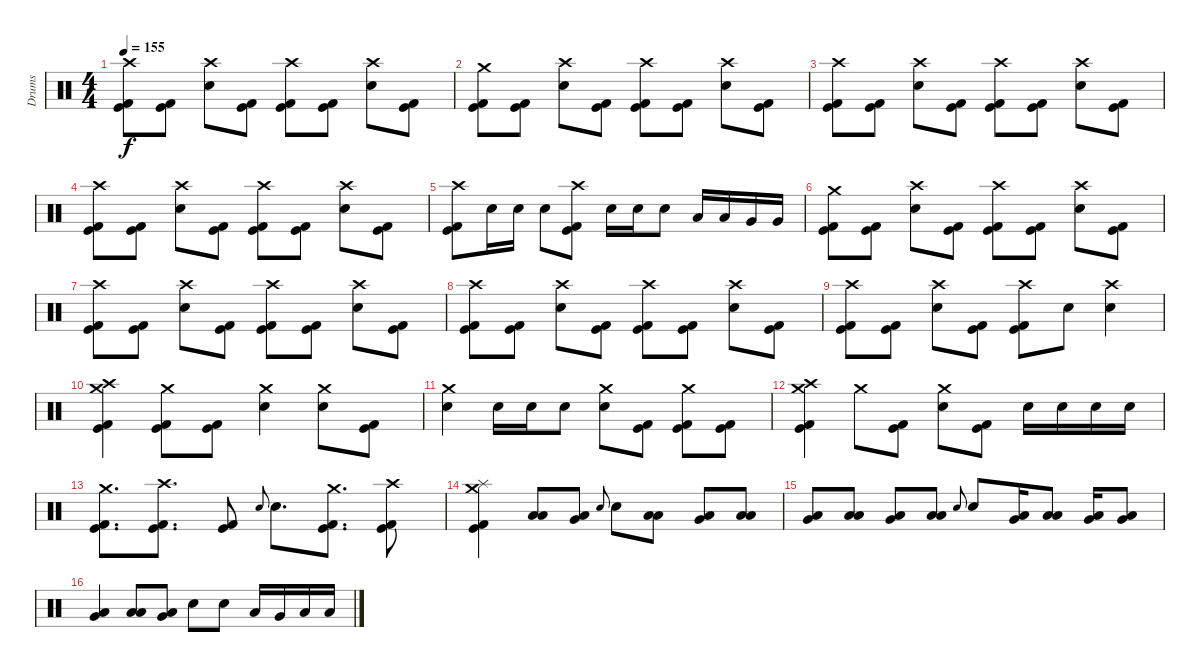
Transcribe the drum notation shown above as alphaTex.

\track ("Drums" "Drums") {instrument percussion}
\staff {score}
\articulation defaults
\ts (4 4)
\tempo 155
\clef neutral
\ks c
("Crash high (hit)" "Kick (hit)" "Kick (hit) 2").8{dy f} ("Kick (hit)" "Kick (hit) 2").8 ("Crash high (hit)" "Electric Snare (hit)").8 ("Kick (hit)" "Kick (hit) 2").8 ("Crash high (hit)" "Kick (hit)" "Kick (hit) 2").8 ("Kick (hit)" "Kick (hit) 2").8 ("Crash high (hit)" "Electric Snare (hit)").8 ("Kick (hit)" "Kick (hit) 2").8 |
("Crash medium (hit)" "Kick (hit)" "Kick (hit) 2").8 ("Kick (hit)" "Kick (hit) 2").8 ("Crash high (hit)" "Electric Snare (hit)").8 ("Kick (hit)" "Kick (hit) 2").8 ("Crash high (hit)" "Kick (hit)" "Kick (hit) 2").8 ("Kick (hit)" "Kick (hit) 2").8 ("Crash high (hit)" "Electric Snare (hit)").8 ("Kick (hit)" "Kick (hit) 2").8 |
("Crash high (hit)" "Kick (hit)" "Kick (hit) 2").8 ("Kick (hit)" "Kick (hit) 2").8 ("Crash high (hit)" "Electric Snare (hit)").8 ("Kick (hit)" "Kick (hit) 2").8 ("Crash high (hit)" "Kick (hit)" "Kick (hit) 2").8 ("Kick (hit)" "Kick (hit) 2").8 ("Crash high (hit)" "Electric Snare (hit)").8 ("Kick (hit)" "Kick (hit) 2").8 |
("Crash high (hit)" "Kick (hit)" "Kick (hit) 2").8 ("Kick (hit)" "Kick (hit) 2").8 ("Crash high (hit)" "Electric Snare (hit)").8 ("Kick (hit)" "Kick (hit) 2").8 ("Crash high (hit)" "Kick (hit)" "Kick (hit) 2").8 ("Kick (hit)" "Kick (hit) 2").8 ("Crash high (hit)" "Electric Snare (hit)").8 ("Kick (hit)" "Kick (hit) 2").8 |
("Crash high (hit)" "Kick (hit)" "Kick (hit) 2").8 "Electric Snare (hit)".16 "Electric Snare (hit)".16 "Electric Snare (hit)".8 ("Crash high (hit)" "Kick (hit)" "Kick (hit) 2").8 "Electric Snare (hit)".16 "Electric Snare (hit)".16 "Electric Snare (hit)".8 "Low Tom (hit)".16 "Low Tom (hit)".16 "Very Low Tom (hit)".16 "Very Low Tom (hit)".16 |
("Crash medium (hit)" "Kick (hit)" "Kick (hit) 2").8 ("Kick (hit)" "Kick (hit) 2").8 ("Crash high (hit)" "Electric Snare (hit)").8 ("Kick (hit)" "Kick (hit) 2").8 ("Crash high (hit)" "Kick (hit)" "Kick (hit) 2").8 ("Kick (hit)" "Kick (hit) 2").8 ("Crash high (hit)" "Electric Snare (hit)").8 ("Kick (hit)" "Kick (hit) 2").8 |
("Crash high (hit)" "Kick (hit)" "Kick (hit) 2").8 ("Kick (hit)" "Kick (hit) 2").8 ("Crash high (hit)" "Electric Snare (hit)").8 ("Kick (hit)" "Kick (hit) 2").8 ("Crash high (hit)" "Kick (hit)" "Kick (hit) 2").8 ("Kick (hit)" "Kick (hit) 2").8 ("Crash high (hit)" "Electric Snare (hit)").8 ("Kick (hit)" "Kick (hit) 2").8 |
("Crash high (hit)" "Kick (hit)" "Kick (hit) 2").8 ("Kick (hit)" "Kick (hit) 2").8 ("Crash high (hit)" "Electric Snare (hit)").8 ("Kick (hit)" "Kick (hit) 2").8 ("Crash high (hit)" "Kick (hit)" "Kick (hit) 2").8 ("Kick (hit)" "Kick (hit) 2").8 ("Crash high (hit)" "Electric Snare (hit)").8 ("Kick (hit)" "Kick (hit) 2").8 |
("Crash high (hit)" "Kick (hit)" "Kick (hit) 2").8 ("Kick (hit)" "Kick (hit) 2").8 ("Crash high (hit)" "Electric Snare (hit)").8 ("Kick (hit)" "Kick (hit) 2").8 ("Crash high (hit)" "Kick (hit)" "Kick (hit) 2").8 "Electric Snare (hit)".8 ("Crash high (hit)" "Electric Snare (hit)").4 |
("Crash medium (hit)" "Crash high (hit)" "Kick (hit)" "Kick (hit) 2").4 ("Crash medium (hit)" "Kick (hit)" "Kick (hit) 2").8 ("Kick (hit)" "Kick (hit) 2").8 ("Crash medium (hit)" "Electric Snare (hit)").4 ("Crash medium (hit)" "Electric Snare (hit)").8 ("Kick (hit)" "Kick (hit) 2").8 |
("Crash medium (hit)" "Electric Snare (hit)").4 "Electric Snare (hit)".16 "Electric Snare (hit)".16 "Electric Snare (hit)".8 ("Crash medium (hit)" "Electric Snare (hit)").8 ("Kick (hit)" "Kick (hit) 2").8 ("Crash medium (hit)" "Kick (hit)" "Kick (hit) 2").8 ("Kick (hit)" "Kick (hit) 2").8 |
("Crash high (hit)" "Crash medium (hit)" "Kick (hit)" "Kick (hit) 2").4 "Crash medium (hit)".8 ("Kick (hit)" "Kick (hit) 2").8 ("Crash medium (hit)" "Electric Snare (hit)").8 ("Kick (hit)" "Kick (hit) 2").8 "Electric Snare (hit)".16 "Electric Snare (hit)".16 "Electric Snare (hit)".16 "Electric Snare (hit)".16 |
("Crash medium (hit)" "Kick (hit)" "Kick (hit) 2").8{d} ("Crash high (hit)" "Kick (hit)" "Kick (hit) 2").8{d} ("Kick (hit)" "Kick (hit) 2").8 "Electric Snare (hit)".8{gr onbeat} "Electric Snare (hit)".8{d} ("Crash medium (hit)" "Kick (hit)" "Kick (hit) 2").8{d} ("Crash high (hit)" "Kick (hit)" "Kick (hit) 2").8 |
("Crash medium (hit)" "Splash (hit)" "Kick (hit)" "Kick (hit) 2").4 ("Low Tom (hit)" "Low Floor Tom (hit)").8 ("Low Tom (hit)" "Very Low Tom (hit)").8 "Electric Snare (hit)".8{gr onbeat} "Electric Snare (hit)".8 ("Low Tom (hit)" "Low Floor Tom (hit)").8 ("Low Tom (hit)" "Very Low Tom (hit)").8 ("Low Tom (hit)" "Low Floor Tom (hit)").8 |
("Low Tom (hit)" "Very Low Tom (hit)").8 ("Low Tom (hit)" "Low Floor Tom (hit)").8 ("Low Tom (hit)" "Very Low Tom (hit)").8 ("Low Tom (hit)" "Low Floor Tom (hit)").8 "Electric Snare (hit)".8{gr onbeat} "Electric Snare (hit)".8 ("Low Tom (hit)" "Very Low Tom (hit)").16 ("Low Tom (hit)" "Low Floor Tom (hit)").8 ("Low Tom (hit)" "Very Low Tom (hit)").16 ("Low Tom (hit)" "Very Low Tom (hit)").8 |
("Low Tom (hit)" "Very Low Tom (hit)").4 ("Low Tom (hit)" "Low Floor Tom (hit)").8 ("Low Tom (hit)" "Very Low Tom (hit)").8 "Electric Snare (hit)".8 "Electric Snare (hit)".8 "Low Tom (hit)".16 "Very Low Tom (hit)".16 "Low Tom (hit)".16 "Low Floor Tom (hit)".16
